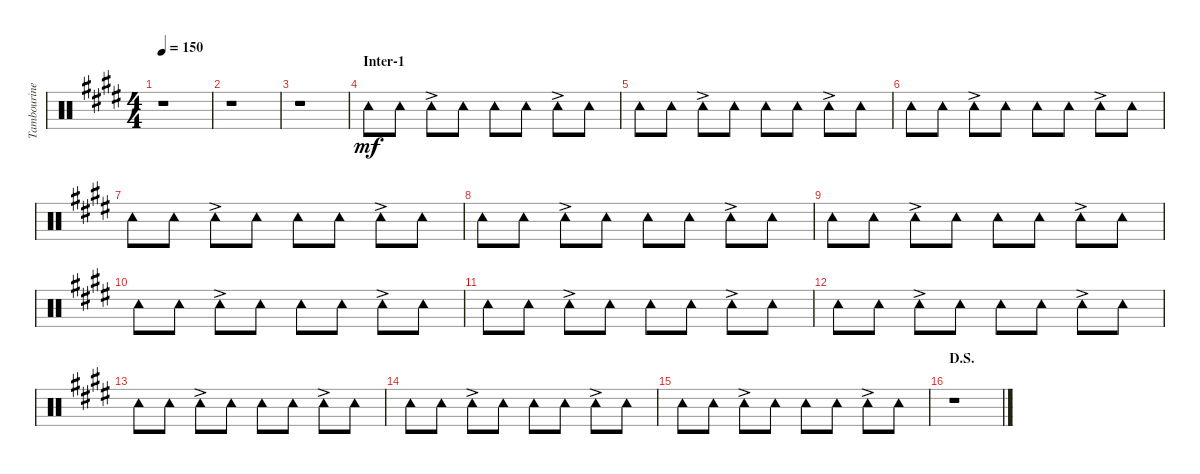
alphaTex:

\track ("Tambourine" "Tambourine") {instrument percussion}
\staff {score}
\articulation defaults
\ts (4 4)
\tempo 150
\clef neutral
\ks e
r.1{dy mf} |
r.1 |
r.1 |
\section ("" "Inter-1")
"Tambourine (hit)".8 "Tambourine (hit)".8 "Tambourine (hit)"{ac}.8 "Tambourine (hit)".8 "Tambourine (hit)".8 "Tambourine (hit)".8 "Tambourine (hit)"{ac}.8 "Tambourine (hit)".8 |
"Tambourine (hit)".8 "Tambourine (hit)".8 "Tambourine (hit)"{ac}.8 "Tambourine (hit)".8 "Tambourine (hit)".8 "Tambourine (hit)".8 "Tambourine (hit)"{ac}.8 "Tambourine (hit)".8 |
"Tambourine (hit)".8 "Tambourine (hit)".8 "Tambourine (hit)"{ac}.8 "Tambourine (hit)".8 "Tambourine (hit)".8 "Tambourine (hit)".8 "Tambourine (hit)"{ac}.8 "Tambourine (hit)".8 |
"Tambourine (hit)".8 "Tambourine (hit)".8 "Tambourine (hit)"{ac}.8 "Tambourine (hit)".8 "Tambourine (hit)".8 "Tambourine (hit)".8 "Tambourine (hit)"{ac}.8 "Tambourine (hit)".8 |
"Tambourine (hit)".8 "Tambourine (hit)".8 "Tambourine (hit)"{ac}.8 "Tambourine (hit)".8 "Tambourine (hit)".8 "Tambourine (hit)".8 "Tambourine (hit)"{ac}.8 "Tambourine (hit)".8 |
"Tambourine (hit)".8 "Tambourine (hit)".8 "Tambourine (hit)"{ac}.8 "Tambourine (hit)".8 "Tambourine (hit)".8 "Tambourine (hit)".8 "Tambourine (hit)"{ac}.8 "Tambourine (hit)".8 |
"Tambourine (hit)".8 "Tambourine (hit)".8 "Tambourine (hit)"{ac}.8 "Tambourine (hit)".8 "Tambourine (hit)".8 "Tambourine (hit)".8 "Tambourine (hit)"{ac}.8 "Tambourine (hit)".8 |
"Tambourine (hit)".8 "Tambourine (hit)".8 "Tambourine (hit)"{ac}.8 "Tambourine (hit)".8 "Tambourine (hit)".8 "Tambourine (hit)".8 "Tambourine (hit)"{ac}.8 "Tambourine (hit)".8 |
"Tambourine (hit)".8 "Tambourine (hit)".8 "Tambourine (hit)"{ac}.8 "Tambourine (hit)".8 "Tambourine (hit)".8 "Tambourine (hit)".8 "Tambourine (hit)"{ac}.8 "Tambourine (hit)".8 |
"Tambourine (hit)".8 "Tambourine (hit)".8 "Tambourine (hit)"{ac}.8 "Tambourine (hit)".8 "Tambourine (hit)".8 "Tambourine (hit)".8 "Tambourine (hit)"{ac}.8 "Tambourine (hit)".8 |
"Tambourine (hit)".8 "Tambourine (hit)".8 "Tambourine (hit)"{ac}.8 "Tambourine (hit)".8 "Tambourine (hit)".8 "Tambourine (hit)".8 "Tambourine (hit)"{ac}.8 "Tambourine (hit)".8 |
"Tambourine (hit)".8 "Tambourine (hit)".8 "Tambourine (hit)"{ac}.8 "Tambourine (hit)".8 "Tambourine (hit)".8 "Tambourine (hit)".8 "Tambourine (hit)"{ac}.8 "Tambourine (hit)".8 |
\section ("" "D.S.")
r.1
